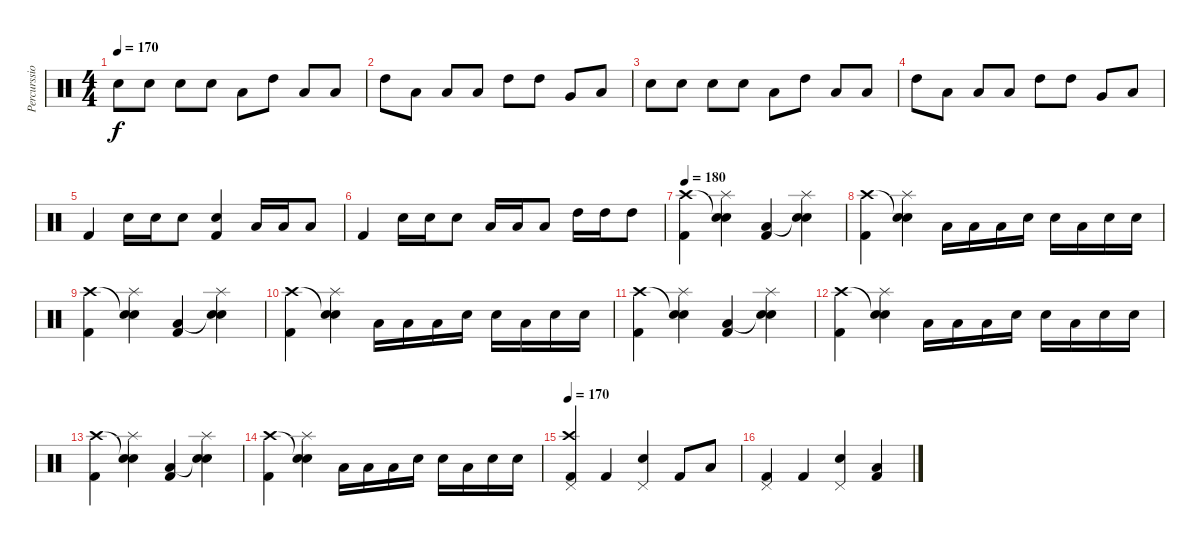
\track ("Percurssion" "Percurssio") {instrument percussion}
\staff {score}
\articulation defaults
\ts (4 4)
\tempo 170
\clef neutral
\ks c "Electric Snare (hit)".8{dy f} "Electric Snare (hit)".8 "Snare (hit) 2".8 "Snare (hit) 2".8 "Low Tom (hit)".8 "High Tom (hit)".8 "Low Floor Tom (hit)".8 "Low Floor Tom (hit)".8
|
"High Tom (hit)".8 "Low Tom (hit)".8 "Low Tom (hit)".8 "Low Tom (hit)".8 "High Tom (hit)".8 "High Tom (hit)".8 "Very Low Tom (hit)".8 "Low Floor Tom (hit)".8 |
"Electric Snare (hit)".8 "Electric Snare (hit)".8 "Snare (hit) 2".8 "Snare (hit) 2".8 "Low Tom (hit)".8 "High Tom (hit)".8 "Low Floor Tom (hit)".8 "Low Floor Tom (hit)".8 |
"High Tom (hit)".8 "Low Tom (hit)".8 "Low Tom (hit)".8 "Low Tom (hit)".8 "High Tom (hit)".8 "High Tom (hit)".8 "Very Low Tom (hit)".8 "Low Floor Tom (hit)".8 |
"Kick (hit) 2".4 "Electric Snare (hit)".16 "Electric Snare (hit)".16 "Electric Snare (hit)".8 ("Electric Snare (hit)" "Kick (hit) 2").4 "Low Tom (hit)".16 "Low Tom (hit)".16 "Low Tom (hit)".8 |
"Kick (hit) 2".4 "Electric Snare (hit)".16 "Electric Snare (hit)".16 "Electric Snare (hit)".8 "Low Tom (hit)".16 "Low Tom (hit)".16 "Low Tom (hit)".8 "High Tom (hit)".16 "High Tom (hit)".16 "High Tom (hit)".8 |
\tempo 180
("Crash high (hit)" "Kick (hit) 2").4 ("Snare (hit)"{t} "Splash (hit)" "Electric Snare (hit)").4 ("Low Tom (hit)" "Kick (hit) 2").4 ("Snare (hit)"{t} "Splash (hit)" "Electric Snare (hit)").4 |
("Crash high (hit)" "Kick (hit) 2").4 ("Snare (hit)"{t} "Splash (hit)" "Electric Snare (hit)").4 "Low Tom (hit)".16 "Low Tom (hit)".16 "Low Tom (hit)".16 "Electric Snare (hit)".16 "Electric Snare (hit)".16 "Low Tom (hit)".16 "Electric Snare (hit)".16 "Electric Snare (hit)".16 |
("Crash high (hit)" "Kick (hit) 2").4 ("Snare (hit)"{t} "Splash (hit)" "Electric Snare (hit)").4 ("Low Tom (hit)" "Kick (hit) 2").4 ("Snare (hit)"{t} "Splash (hit)" "Electric Snare (hit)").4 |
("Crash high (hit)" "Kick (hit) 2").4 ("Snare (hit)"{t} "Splash (hit)" "Electric Snare (hit)").4 "Low Tom (hit)".16 "Low Tom (hit)".16 "Low Tom (hit)".16 "Electric Snare (hit)".16 "Electric Snare (hit)".16 "Low Tom (hit)".16 "Electric Snare (hit)".16 "Electric Snare (hit)".16 |
("Crash high (hit)" "Kick (hit) 2").4 ("Snare (hit)"{t} "Splash (hit)" "Electric Snare (hit)").4 ("Low Tom (hit)" "Kick (hit) 2").4 ("Snare (hit)"{t} "Splash (hit)" "Electric Snare (hit)").4 |
("Crash high (hit)" "Kick (hit) 2").4 ("Snare (hit)"{t} "Splash (hit)" "Electric Snare (hit)").4 "Low Tom (hit)".16 "Low Tom (hit)".16 "Low Tom (hit)".16 "Electric Snare (hit)".16 "Electric Snare (hit)".16 "Low Tom (hit)".16 "Electric Snare (hit)".16 "Electric Snare (hit)".16 |
("Crash high (hit)" "Kick (hit) 2").4 ("Snare (hit)"{t} "Splash (hit)" "Electric Snare (hit)").4 ("Low Tom (hit)" "Kick (hit) 2").4 ("Snare (hit)"{t} "Splash (hit)" "Electric Snare (hit)").4 |
("Crash high (hit)" "Kick (hit) 2").4 ("Snare (hit)"{t} "Splash (hit)" "Electric Snare (hit)").4 "Low Tom (hit)".16 "Low Tom (hit)".16 "Low Tom (hit)".16 "Electric Snare (hit)".16 "Electric Snare (hit)".16 "Low Tom (hit)".16 "Electric Snare (hit)".16 "Electric Snare (hit)".16 |
\tempo 170
("Crash high (hit)" "Pedal Hi-Hat (hit)" "Kick (hit) 2").4 "Kick (hit) 2".4 ("Pedal Hi-Hat (hit)" "Electric Snare (hit)").4 "Kick (hit) 2".8 "Low Tom (hit)".8 |
("Pedal Hi-Hat (hit)" "Kick (hit) 2").4 "Kick (hit) 2".4 ("Pedal Hi-Hat (hit)" "Electric Snare (hit)").4 ("Low Tom (hit)" "Kick (hit) 2").4{bu 240}
